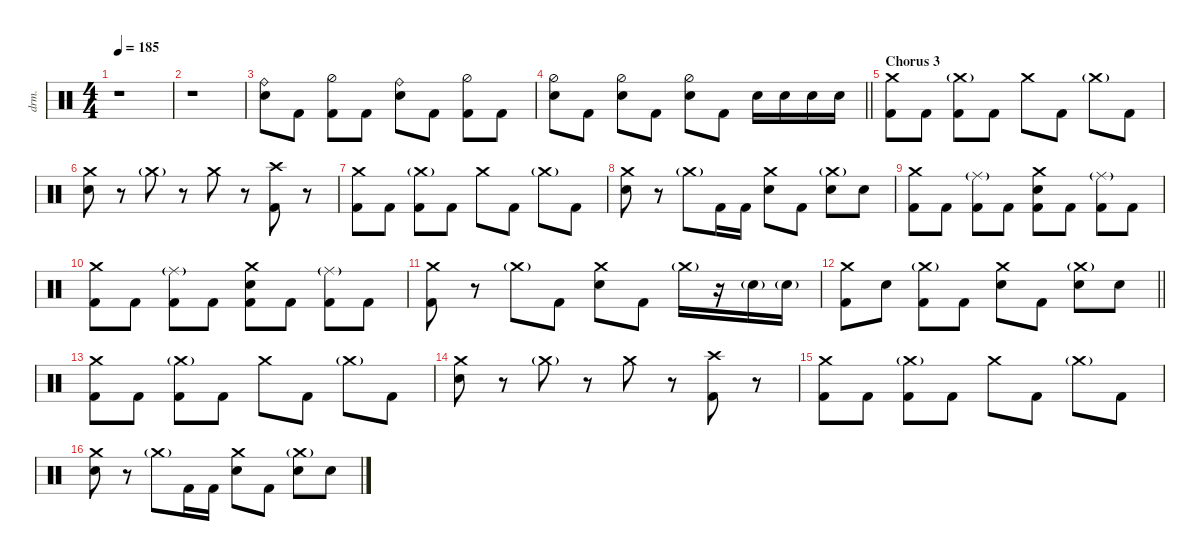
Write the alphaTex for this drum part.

\defaultSystemsLayout 4
\hideDynamics
\bracketExtendMode nobrackets
\track ("Drums - Šimon" "drm.") {instrument percussion}
\staff {score}
\articulation defaults
\ts (4 4)
\tempo 185
\clef neutral
\ks c
r.1{dy ff} |
r.1 |
("Snare (hit) 2" "Ride (bell)").8 "Kick (hit) 2".8 ("Kick (hit) 2" "Hi-Hat (half)").8 "Kick (hit) 2".8 ("Snare (hit) 2" "Ride (bell)").8 "Kick (hit) 2".8 ("Kick (hit) 2" "Hi-Hat (half)").8 "Kick (hit) 2".8 |
\barLineRight lightlight
("Snare (hit) 2" "Hi-Hat (half)").8 "Kick (hit) 2".8 ("Snare (hit) 2" "Hi-Hat (half)").8 "Kick (hit) 2".8 ("Snare (hit) 2" "Hi-Hat (half)").8 "Kick (hit) 2".8 "Snare (hit) 2".16 "Snare (hit) 2".16 "Snare (hit) 2".16 "Snare (hit) 2".16 |
\section ("" "Chorus 3")
("Kick (hit) 2" "Crash medium (hit)").8 "Kick (hit) 2".8 ("Kick (hit) 2" "Crash medium (hit)"{g}).8 "Kick (hit) 2".8 "Crash medium (hit)".8 "Kick (hit) 2".8 "Crash medium (hit)"{g}.8 "Kick (hit) 2".8 |
("Snare (hit) 2" "Crash medium (hit)").8 r.8 "Crash medium (hit)"{g}.8 r.8 "Crash medium (hit)".8 r.8 ("Kick (hit) 2" "Crash high (hit)").8 r.8 |
("Kick (hit) 2" "Crash medium (hit)").8 "Kick (hit) 2".8 ("Kick (hit) 2" "Crash medium (hit)"{g}).8 "Kick (hit) 2".8 "Crash medium (hit)".8 "Kick (hit) 2".8 "Crash medium (hit)"{g}.8 "Kick (hit) 2".8 |
("Snare (hit) 2" "Crash medium (hit)").8 r.8 "Crash medium (hit)"{g}.8 "Kick (hit) 2".16 "Kick (hit) 2".16 ("Crash medium (hit)" "Snare (hit) 2").8 "Kick (hit) 2".8 ("Snare (hit) 2" "Crash medium (hit)"{g}).8 "Snare (hit) 2".8 |
("Kick (hit) 2" "Crash medium (hit)").8 "Kick (hit) 2".8 ("Kick (hit) 2" "Ride (middle)"{g}).8 "Kick (hit) 2".8 ("Snare (hit) 2" "Crash medium (hit)" "Kick (hit) 2").8 "Kick (hit) 2".8 ("Kick (hit) 2" "Ride (middle)"{g}).8 "Kick (hit) 2".8 |
("Crash medium (hit)" "Kick (hit) 2").8 "Kick (hit) 2".8 ("Kick (hit) 2" "Ride (middle)"{g}).8 "Kick (hit) 2".8 ("Snare (hit) 2" "Crash medium (hit)" "Kick (hit) 2").8 "Kick (hit) 2".8 ("Kick (hit) 2" "Ride (middle)"{g}).8 "Kick (hit) 2".8 |
("Kick (hit) 2" "Crash medium (hit)").8 r.8 "Crash medium (hit)"{g}.8 "Kick (hit) 2".8 ("Snare (hit) 2" "Crash medium (hit)").8 "Kick (hit) 2".8 "Crash medium (hit)"{g}.16 r.16 "Snare (hit) 2"{g}.16 "Snare (hit) 2"{g}.16 |
\barLineRight lightlight
("Crash medium (hit)" "Kick (hit) 2").8 "Snare (hit) 2".8 ("Kick (hit) 2" "Crash medium (hit)"{g}).8 "Kick (hit) 2".8 ("Snare (hit) 2" "Crash medium (hit)").8 "Kick (hit) 2".8 ("Crash medium (hit)"{g} "Snare (hit) 2").8 "Snare (hit) 2".8 |
("Kick (hit) 2" "Crash medium (hit)").8 "Kick (hit) 2".8 ("Kick (hit) 2" "Crash medium (hit)"{g}).8 "Kick (hit) 2".8 "Crash medium (hit)".8 "Kick (hit) 2".8 "Crash medium (hit)"{g}.8 "Kick (hit) 2".8 |
("Snare (hit) 2" "Crash medium (hit)").8 r.8 "Crash medium (hit)"{g}.8 r.8 "Crash medium (hit)".8 r.8 ("Kick (hit) 2" "Crash high (hit)").8 r.8 |
("Kick (hit) 2" "Crash medium (hit)").8 "Kick (hit) 2".8 ("Kick (hit) 2" "Crash medium (hit)"{g}).8 "Kick (hit) 2".8 "Crash medium (hit)".8 "Kick (hit) 2".8 "Crash medium (hit)"{g}.8 "Kick (hit) 2".8 |
("Snare (hit) 2" "Crash medium (hit)").8 r.8 "Crash medium (hit)"{g}.8 "Kick (hit) 2".16 "Kick (hit) 2".16 ("Crash medium (hit)" "Snare (hit) 2").8 "Kick (hit) 2".8 ("Snare (hit) 2" "Crash medium (hit)"{g}).8 "Snare (hit) 2".8
